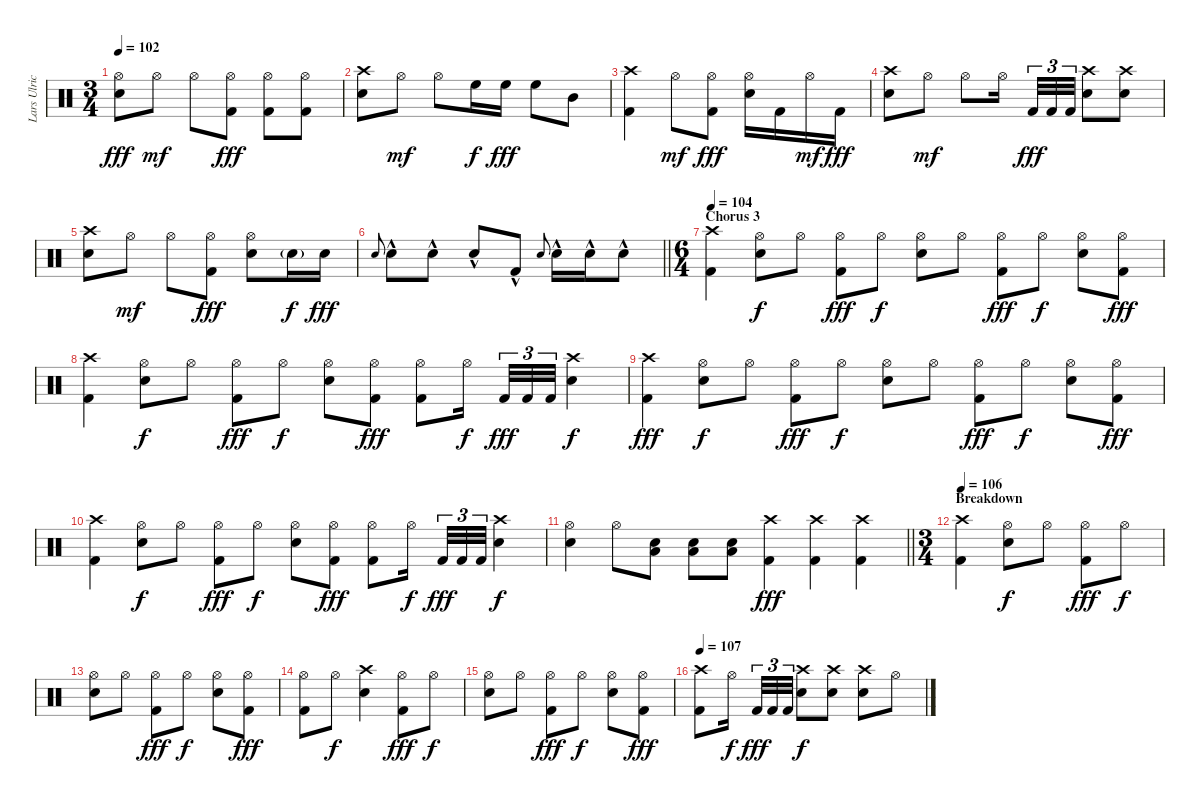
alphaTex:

\track ("Lars Ulrich" "Lars Ulric") {instrument percussion}
\staff {score}
\articulation defaults
\ts (3 4)
\tempo 102
\clef neutral
\ks c
("Hi-Hat (open)" "Electric Snare (hit)").8{dy fff} "Hi-Hat (open)".8{dy mf} "Hi-Hat (open)".8 ("Hi-Hat (open)" "Kick (hit) 2").8{dy fff} ("Hi-Hat (open)" "Kick (hit) 2").8 ("Hi-Hat (open)" "Kick (hit) 2").8 |
("Crash high (hit)" "Electric Snare (hit)").8 "Hi-Hat (open)".8{dy mf} "Hi-Hat (open)".8 "High Floor Tom (hit)".16{dy f} "High Floor Tom (hit)".16{dy fff} "High Floor Tom (hit)".8 "Mid Tom (hit)".8 |
("Crash high (hit)" "Kick (hit) 2").4 "Hi-Hat (open)".8{dy mf} ("Hi-Hat (open)" "Kick (hit) 2").8{dy fff} ("Hi-Hat (open)" "Electric Snare (hit)").16 "Kick (hit) 2".16 "Hi-Hat (open)".16{dy mf} "Kick (hit) 2".16{dy fff} |
("Crash high (hit)" "Electric Snare (hit)").8 "Hi-Hat (open)".8{dy mf} "Hi-Hat (open)".8 "Hi-Hat (open)".16{beam splitsecondary} "Kick (hit) 2".32{tu (3 2) dy fff} "Kick (hit) 2".32{tu (3 2)} "Kick (hit) 2".32{tu (3 2)} ("Crash high (hit)" "Electric Snare (hit)").8 ("Crash high (hit)" "Electric Snare (hit)").8 |
("Crash high (hit)" "Electric Snare (hit)").8 "Hi-Hat (open)".8{dy mf} "Hi-Hat (open)".8 ("Hi-Hat (open)" "Kick (hit) 2").8{dy fff} ("Hi-Hat (open)" "Electric Snare (hit)").8 "Electric Snare (hit)"{g}.16{dy f} "Electric Snare (hit)".16{dy fff} |
\barLineRight lightlight "Electric Snare (hit)".8{gr onbeat} "Electric Snare (hit)"{hac}.8 "Electric Snare (hit)"{hac}.8 "Electric Snare (hit)"{hac}.8 "Kick (hit) 2"{hac}.8 "Electric Snare (hit)".8{gr onbeat} "Electric Snare (hit)"{hac}.16 "Electric Snare (hit)"{hac}.16 "Electric Snare (hit)"{hac}.8
|
\ts (6 4)
\section ("" "Chorus 3")
\tempo 104
("Crash high (hit)" "Kick (hit) 2").4 ("Hi-Hat (open)" "Electric Snare (hit)").8{dy f} "Hi-Hat (open)".8 ("Hi-Hat (open)" "Kick (hit) 2").8{dy fff} "Hi-Hat (open)".8{dy f} ("Hi-Hat (open)" "Electric Snare (hit)").8 "Hi-Hat (open)".8 ("Hi-Hat (open)" "Kick (hit) 2").8{dy fff} "Hi-Hat (open)".8{dy f} ("Hi-Hat (open)" "Electric Snare (hit)").8 ("Hi-Hat (open)" "Kick (hit) 2").8{dy fff} |
("Crash high (hit)" "Kick (hit) 2").4 ("Hi-Hat (open)" "Electric Snare (hit)").8{dy f} "Hi-Hat (open)".8 ("Hi-Hat (open)" "Kick (hit) 2").8{dy fff} "Hi-Hat (open)".8{dy f} ("Hi-Hat (open)" "Electric Snare (hit)").8 ("Hi-Hat (open)" "Kick (hit) 2").8{dy fff} ("Hi-Hat (open)" "Kick (hit) 2").8 "Hi-Hat (open)".16{dy f beam splitsecondary} "Kick (hit) 2".32{tu (3 2) dy fff} "Kick (hit) 2".32{tu (3 2)} "Kick (hit) 2".32{tu (3 2)} ("Crash high (hit)" "Electric Snare (hit)").4{dy f} |
("Crash high (hit)" "Kick (hit) 2").4{dy fff} ("Hi-Hat (open)" "Electric Snare (hit)").8{dy f} "Hi-Hat (open)".8 ("Hi-Hat (open)" "Kick (hit) 2").8{dy fff} "Hi-Hat (open)".8{dy f} ("Hi-Hat (open)" "Electric Snare (hit)").8 "Hi-Hat (open)".8 ("Hi-Hat (open)" "Kick (hit) 2").8{dy fff} "Hi-Hat (open)".8{dy f} ("Hi-Hat (open)" "Electric Snare (hit)").8 ("Hi-Hat (open)" "Kick (hit) 2").8{dy fff} |
("Crash high (hit)" "Kick (hit) 2").4 ("Hi-Hat (open)" "Electric Snare (hit)").8{dy f} "Hi-Hat (open)".8 ("Hi-Hat (open)" "Kick (hit) 2").8{dy fff} "Hi-Hat (open)".8{dy f} ("Hi-Hat (open)" "Electric Snare (hit)").8 ("Hi-Hat (open)" "Kick (hit) 2").8{dy fff} ("Hi-Hat (open)" "Kick (hit) 2").8 "Hi-Hat (open)".16{dy f beam splitsecondary} "Kick (hit) 2".32{tu (3 2) dy fff} "Kick (hit) 2".32{tu (3 2)} "Kick (hit) 2".32{tu (3 2)} ("Crash high (hit)" "Electric Snare (hit)").4{dy f} |
\barLineRight lightlight
("Hi-Hat (open)" "Electric Snare (hit)").4 "Hi-Hat (open)".8 ("Electric Snare (hit)" "Low Floor Tom (hit)").8 ("Electric Snare (hit)" "Low Floor Tom (hit)").8 ("Electric Snare (hit)" "Low Floor Tom (hit)").8 ("Crash high (hit)" "Kick (hit) 2").4{dy fff} ("Crash high (hit)" "Kick (hit) 2").4 ("Crash high (hit)" "Kick (hit) 2").4 |
\ts (3 4)
\section ("" "Breakdown")
\tempo 106
("Crash high (hit)" "Kick (hit) 2").4 ("Hi-Hat (open)" "Electric Snare (hit)").8{dy f} "Hi-Hat (open)".8 ("Hi-Hat (open)" "Kick (hit) 2").8{dy fff} "Hi-Hat (open)".8{dy f} |
("Hi-Hat (open)" "Electric Snare (hit)").8 "Hi-Hat (open)".8 ("Hi-Hat (open)" "Kick (hit) 2").8{dy fff} "Hi-Hat (open)".8{dy f} ("Hi-Hat (open)" "Electric Snare (hit)").8 ("Hi-Hat (open)" "Kick (hit) 2").8{dy fff} |
("Hi-Hat (open)" "Kick (hit) 2").8 "Hi-Hat (open)".8{dy f} ("Crash high (hit)" "Electric Snare (hit)").4 ("Hi-Hat (open)" "Kick (hit) 2").8{dy fff} "Hi-Hat (open)".8{dy f} |
("Hi-Hat (open)" "Electric Snare (hit)").8 "Hi-Hat (open)".8 ("Hi-Hat (open)" "Kick (hit) 2").8{dy fff} "Hi-Hat (open)".8{dy f} ("Hi-Hat (open)" "Electric Snare (hit)").8 ("Hi-Hat (open)" "Kick (hit) 2").8{dy fff} |
\tempo 107
("Crash high (hit)" "Kick (hit) 2").8 "Hi-Hat (open)".16{dy f beam splitsecondary} "Kick (hit) 2".32{tu (3 2) dy fff} "Kick (hit) 2".32{tu (3 2)} "Kick (hit) 2".32{tu (3 2)} ("Crash high (hit)" "Electric Snare (hit)").8{dy f} ("Crash high (hit)" "Electric Snare (hit)").8 ("Crash high (hit)" "Electric Snare (hit)").8 "Hi-Hat (open)".8
